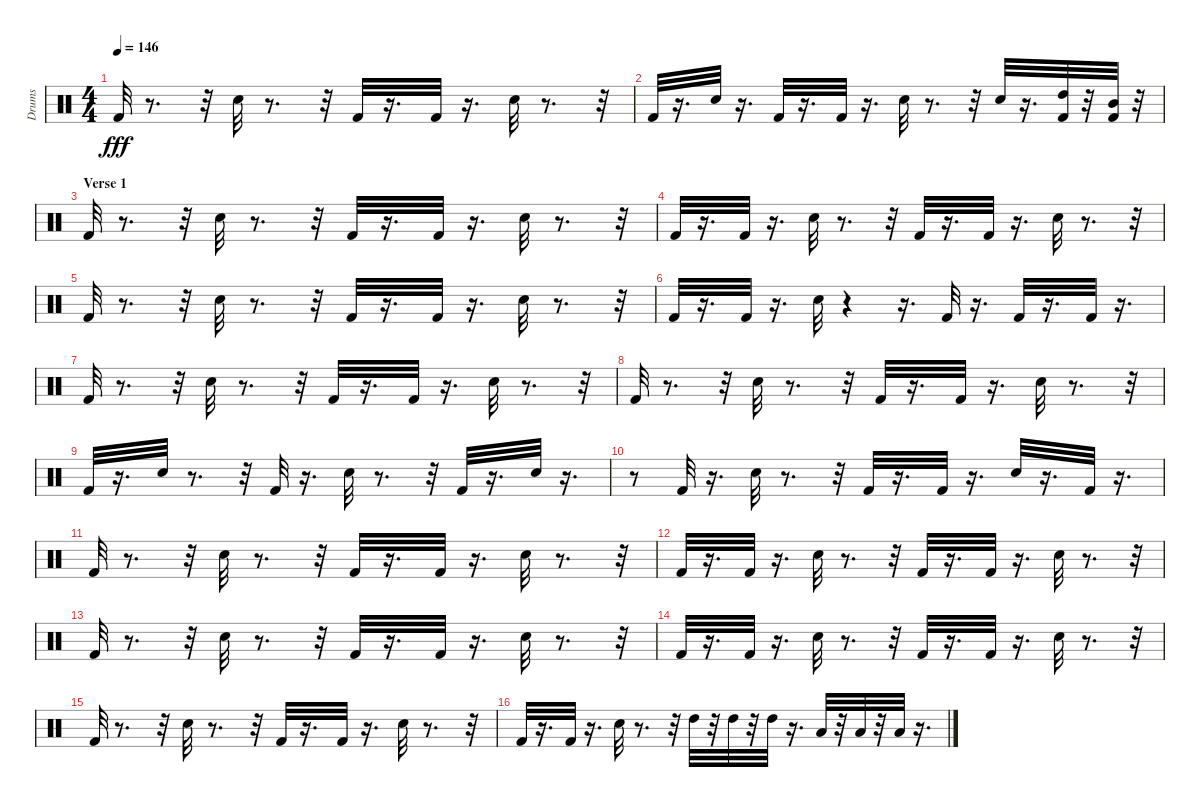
\track ("Drums" "Drums") {instrument percussion}
\staff {score}
\articulation defaults
\ts (4 4)
\tempo 146
\clef neutral
\ks c "Kick (hit) 2".32{dy fff}
r.8{d} r.32 "Snare (hit) 2".32 r.8{d} r.32 "Kick (hit) 2".32 r.16{d} "Kick (hit) 2".32 r.16{d} "Snare (hit) 2".32 r.8{d} r.32 |
"Kick (hit) 2".32 r.16{d} "Snare (hit) 2".32 r.16{d} "Kick (hit) 2".32 r.16{d} "Kick (hit) 2".32 r.16{d} "Snare (hit) 2".32 r.8{d} r.32 "Snare (hit) 2".32 r.16{d} ("Kick (hit) 2" "High Tom (hit)").32 r.32 ("Kick (hit) 2" "Mid Tom (hit)").32 r.32 |
\section ("" "Verse 1")
"Kick (hit) 2".32 r.8{d} r.32 "Snare (hit) 2".32 r.8{d} r.32 "Kick (hit) 2".32 r.16{d} "Kick (hit) 2".32 r.16{d} "Snare (hit) 2".32 r.8{d} r.32 |
"Kick (hit) 2".32 r.16{d} "Kick (hit) 2".32 r.16{d} "Snare (hit) 2".32 r.8{d} r.32 "Kick (hit) 2".32 r.16{d} "Kick (hit) 2".32 r.16{d} "Snare (hit) 2".32 r.8{d} r.32 |
"Kick (hit) 2".32 r.8{d} r.32 "Snare (hit) 2".32 r.8{d} r.32 "Kick (hit) 2".32 r.16{d} "Kick (hit) 2".32 r.16{d} "Snare (hit) 2".32 r.8{d} r.32 |
"Kick (hit) 2".32 r.16{d} "Kick (hit) 2".32 r.16{d} "Snare (hit) 2".32 r.4 r.16{d} "Kick (hit) 2".32 r.16{d} "Kick (hit) 2".32 r.16{d} "Kick (hit) 2".32 r.16{d} |
"Kick (hit) 2".32 r.8{d} r.32 "Snare (hit) 2".32 r.8{d} r.32 "Kick (hit) 2".32 r.16{d} "Kick (hit) 2".32 r.16{d} "Snare (hit) 2".32 r.8{d} r.32 |
"Kick (hit) 2".32 r.8{d} r.32 "Snare (hit) 2".32 r.8{d} r.32 "Kick (hit) 2".32 r.16{d} "Kick (hit) 2".32 r.16{d} "Snare (hit) 2".32 r.8{d} r.32 |
"Kick (hit) 2".32 r.16{d} "Snare (hit) 2".32 r.8{d} r.32 "Kick (hit) 2".32 r.16{d} "Snare (hit) 2".32 r.8{d} r.32 "Kick (hit) 2".32 r.16{d} "Snare (hit) 2".32 r.16{d} |
r.8 "Kick (hit) 2".32 r.16{d} "Snare (hit) 2".32 r.8{d} r.32 "Kick (hit) 2".32 r.16{d} "Kick (hit) 2".32 r.16{d} "Snare (hit) 2".32 r.16{d} "Kick (hit) 2".32 r.16{d} |
"Kick (hit) 2".32 r.8{d} r.32 "Snare (hit) 2".32 r.8{d} r.32 "Kick (hit) 2".32 r.16{d} "Kick (hit) 2".32 r.16{d} "Snare (hit) 2".32 r.8{d} r.32 |
"Kick (hit) 2".32 r.16{d} "Kick (hit) 2".32 r.16{d} "Snare (hit) 2".32 r.8{d} r.32 "Kick (hit) 2".32 r.16{d} "Kick (hit) 2".32 r.16{d} "Snare (hit) 2".32 r.8{d} r.32 |
"Kick (hit) 2".32 r.8{d} r.32 "Snare (hit) 2".32 r.8{d} r.32 "Kick (hit) 2".32 r.16{d} "Kick (hit) 2".32 r.16{d} "Snare (hit) 2".32 r.8{d} r.32 |
"Kick (hit) 2".32 r.16{d} "Kick (hit) 2".32 r.16{d} "Snare (hit) 2".32 r.8{d} r.32 "Kick (hit) 2".32 r.16{d} "Kick (hit) 2".32 r.16{d} "Snare (hit) 2".32 r.8{d} r.32 |
"Kick (hit) 2".32 r.8{d} r.32 "Snare (hit) 2".32 r.8{d} r.32 "Kick (hit) 2".32 r.16{d} "Kick (hit) 2".32 r.16{d} "Snare (hit) 2".32 r.8{d} r.32 |
"Kick (hit) 2".32 r.16{d} "Kick (hit) 2".32 r.16{d} "Snare (hit) 2".32 r.8{d} r.32 "High Tom (hit)".32 r.32 "High Tom (hit)".32 r.32 "High Tom (hit)".32 r.16{d} "Low Tom (hit)".32 r.32 "Low Tom (hit)".32 r.32 "Low Tom (hit)".32 r.16{d}
